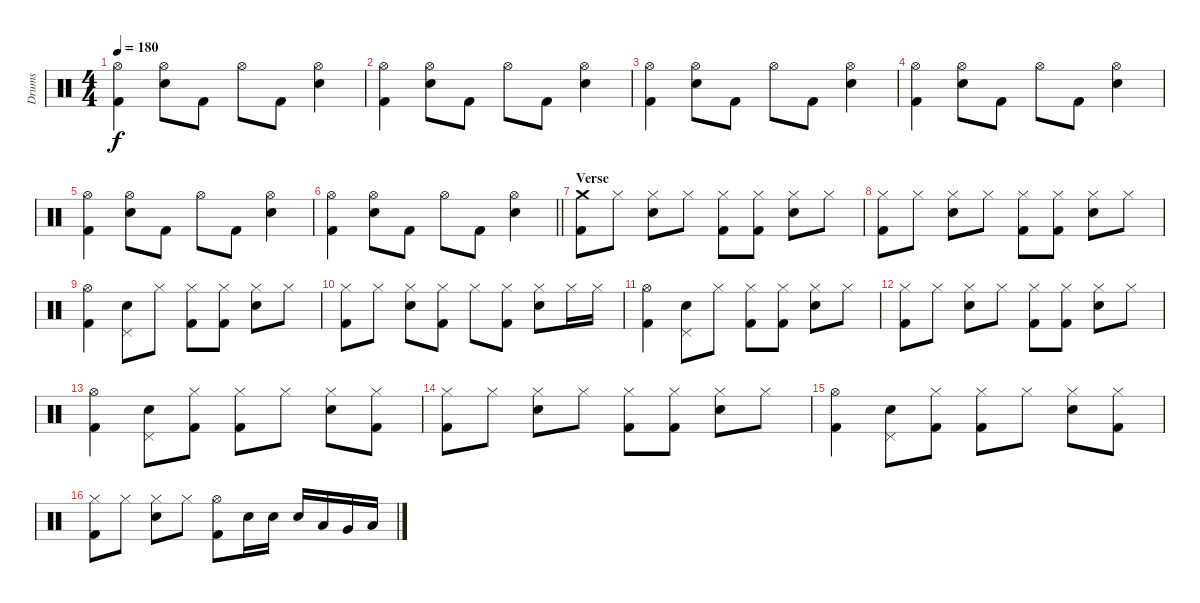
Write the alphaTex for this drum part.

\track ("Drums" "Drums") {instrument percussion}
\staff {score}
\articulation defaults
\ts (4 4)
\tempo 180
\clef neutral
\ks c
("Hi-Hat (open)" "Kick (hit) 2").4{dy f} ("Hi-Hat (open)" "Electric Snare (hit)").8 "Kick (hit) 2".8 "Hi-Hat (open)".8 "Kick (hit) 2".8 ("Hi-Hat (open)" "Electric Snare (hit)").4 |
("Hi-Hat (open)" "Kick (hit) 2").4 ("Hi-Hat (open)" "Electric Snare (hit)").8 "Kick (hit) 2".8 "Hi-Hat (open)".8 "Kick (hit) 2".8 ("Hi-Hat (open)" "Electric Snare (hit)").4 |
("Hi-Hat (open)" "Kick (hit) 2").4 ("Hi-Hat (open)" "Electric Snare (hit)").8 "Kick (hit) 2".8 "Hi-Hat (open)".8 "Kick (hit) 2".8 ("Hi-Hat (open)" "Electric Snare (hit)").4 |
("Hi-Hat (open)" "Kick (hit) 2").4 ("Hi-Hat (open)" "Electric Snare (hit)").8 "Kick (hit) 2".8 "Hi-Hat (open)".8 "Kick (hit) 2".8 ("Hi-Hat (open)" "Electric Snare (hit)").4 |
("Hi-Hat (open)" "Kick (hit) 2").4 ("Hi-Hat (open)" "Electric Snare (hit)").8 "Kick (hit) 2".8 "Hi-Hat (open)".8 "Kick (hit) 2".8 ("Hi-Hat (open)" "Electric Snare (hit)").4 |
\barLineRight lightlight
("Hi-Hat (open)" "Kick (hit) 2").4 ("Hi-Hat (open)" "Electric Snare (hit)").8 "Kick (hit) 2".8 "Hi-Hat (open)".8 "Kick (hit) 2".8 ("Hi-Hat (open)" "Electric Snare (hit)").4 |
\section ("" "Verse")
("Crash medium (hit)" "Kick (hit) 2").8 "Hi-Hat (closed)".8 ("Hi-Hat (closed)" "Electric Snare (hit)").8 "Hi-Hat (closed)".8 ("Hi-Hat (closed)" "Kick (hit) 2").8 ("Hi-Hat (closed)" "Kick (hit) 2").8 ("Hi-Hat (closed)" "Electric Snare (hit)").8 "Hi-Hat (closed)".8 |
("Hi-Hat (closed)" "Kick (hit) 2").8 "Hi-Hat (closed)".8 ("Hi-Hat (closed)" "Electric Snare (hit)").8 "Hi-Hat (closed)".8 ("Hi-Hat (closed)" "Kick (hit) 2").8 ("Hi-Hat (closed)" "Kick (hit) 2").8 ("Hi-Hat (closed)" "Electric Snare (hit)").8 "Hi-Hat (closed)".8 |
("Hi-Hat (open)" "Kick (hit) 2").4 ("Pedal Hi-Hat (hit)" "Electric Snare (hit)").8 "Hi-Hat (closed)".8 ("Hi-Hat (closed)" "Kick (hit) 2").8 ("Hi-Hat (closed)" "Kick (hit) 2").8 ("Hi-Hat (closed)" "Electric Snare (hit)").8 "Hi-Hat (closed)".8 |
("Hi-Hat (closed)" "Kick (hit) 2").8 "Hi-Hat (closed)".8 ("Hi-Hat (closed)" "Electric Snare (hit)").8 ("Hi-Hat (closed)" "Kick (hit) 2").8 "Hi-Hat (closed)".8 ("Hi-Hat (closed)" "Kick (hit) 2").8 ("Hi-Hat (closed)" "Electric Snare (hit)").8 "Hi-Hat (closed)".16 "Hi-Hat (closed)".16 |
("Hi-Hat (open)" "Kick (hit) 2").4 ("Pedal Hi-Hat (hit)" "Electric Snare (hit)").8 "Hi-Hat (closed)".8 ("Hi-Hat (closed)" "Kick (hit) 2").8 ("Hi-Hat (closed)" "Kick (hit) 2").8 ("Hi-Hat (closed)" "Electric Snare (hit)").8 "Hi-Hat (closed)".8 |
("Hi-Hat (closed)" "Kick (hit) 2").8 "Hi-Hat (closed)".8 ("Hi-Hat (closed)" "Electric Snare (hit)").8 "Hi-Hat (closed)".8 ("Hi-Hat (closed)" "Kick (hit) 2").8 ("Hi-Hat (closed)" "Kick (hit) 2").8 ("Hi-Hat (closed)" "Electric Snare (hit)").8 "Hi-Hat (closed)".8 |
("Hi-Hat (open)" "Kick (hit) 2").4 ("Pedal Hi-Hat (hit)" "Electric Snare (hit)").8 ("Hi-Hat (closed)" "Kick (hit) 2").8 ("Hi-Hat (closed)" "Kick (hit) 2").8 "Hi-Hat (closed)".8 ("Hi-Hat (closed)" "Electric Snare (hit)").8 ("Hi-Hat (closed)" "Kick (hit) 2").8 |
("Hi-Hat (closed)" "Kick (hit) 2").8 "Hi-Hat (closed)".8 ("Hi-Hat (closed)" "Electric Snare (hit)").8 "Hi-Hat (closed)".8 ("Hi-Hat (closed)" "Kick (hit) 2").8 ("Hi-Hat (closed)" "Kick (hit) 2").8 ("Hi-Hat (closed)" "Electric Snare (hit)").8 "Hi-Hat (closed)".8 |
("Hi-Hat (open)" "Kick (hit) 2").4 ("Pedal Hi-Hat (hit)" "Electric Snare (hit)").8 ("Hi-Hat (closed)" "Kick (hit) 2").8 ("Hi-Hat (closed)" "Kick (hit) 2").8 "Hi-Hat (closed)".8 ("Hi-Hat (closed)" "Electric Snare (hit)").8 ("Hi-Hat (closed)" "Kick (hit) 2").8 |
("Hi-Hat (closed)" "Kick (hit) 2").8 "Hi-Hat (closed)".8 ("Hi-Hat (closed)" "Electric Snare (hit)").8 "Hi-Hat (closed)".8 ("Hi-Hat (open)" "Kick (hit) 2").8 "Electric Snare (hit)".16 "Electric Snare (hit)".16 "Electric Snare (hit)".16 "Low Tom (hit)".16 "Very Low Tom (hit)".16 "Low Floor Tom (hit)".16
